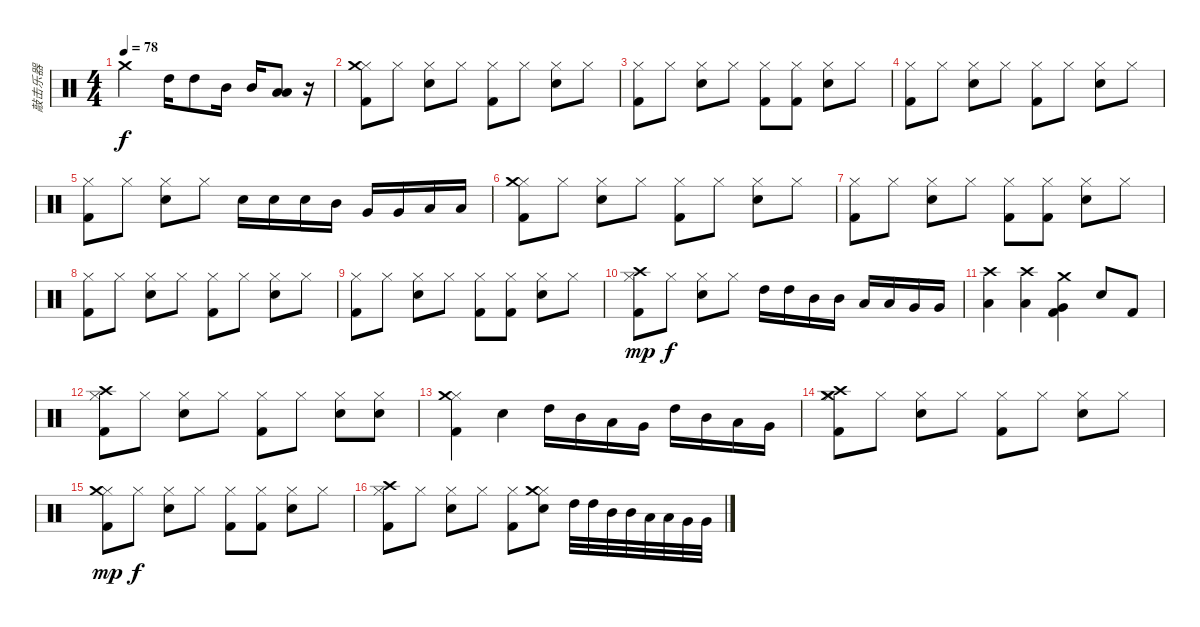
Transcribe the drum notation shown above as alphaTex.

\track ("敲击乐器" "敲击乐器") {instrument percussion}
\staff {score}
\articulation defaults
\ts (4 4)
\tempo 78
\clef neutral
\ks c "Crash medium (hit)".2{dy f} "High Tom (hit)".16 "High Tom (hit)".8 "Mid Tom (hit)".16 "Mid Tom (hit)".16
("Low Tom (hit)" "Low Tom (hit)").8 r.16 |
("Hi-Hat (closed)" "Kick (hit) 2" "Crash medium (hit)").8 "Hi-Hat (closed)".8 ("Hi-Hat (closed)" "Snare (hit) 2").8 "Hi-Hat (closed)".8 ("Hi-Hat (closed)" "Kick (hit) 2").8 "Hi-Hat (closed)".8 ("Hi-Hat (closed)" "Snare (hit) 2").8 "Hi-Hat (closed)".8 |
("Hi-Hat (closed)" "Kick (hit) 2").8 "Hi-Hat (closed)".8 ("Hi-Hat (closed)" "Snare (hit) 2").8 "Hi-Hat (closed)".8 ("Hi-Hat (closed)" "Kick (hit) 2").8 ("Hi-Hat (closed)" "Kick (hit) 2").8 ("Hi-Hat (closed)" "Snare (hit) 2").8 "Hi-Hat (closed)".8 |
("Hi-Hat (closed)" "Kick (hit) 2").8 "Hi-Hat (closed)".8 ("Hi-Hat (closed)" "Snare (hit) 2").8 "Hi-Hat (closed)".8 ("Hi-Hat (closed)" "Kick (hit) 2").8 "Hi-Hat (closed)".8 ("Hi-Hat (closed)" "Snare (hit) 2").8 "Hi-Hat (closed)".8 |
("Hi-Hat (closed)" "Kick (hit) 2").8 "Hi-Hat (closed)".8 ("Hi-Hat (closed)" "Snare (hit) 2").8 "Hi-Hat (closed)".8 "Snare (hit) 2".16 "Snare (hit) 2".16 "Snare (hit) 2".16 "Mid Tom (hit)".16 "Very Low Tom (hit)".16 "Very Low Tom (hit)".16 "Low Floor Tom (hit)".16 "Low Floor Tom (hit)".16 |
("Hi-Hat (closed)" "Kick (hit) 2" "Crash medium (hit)").8 "Hi-Hat (closed)".8 ("Hi-Hat (closed)" "Snare (hit) 2").8 "Hi-Hat (closed)".8 ("Hi-Hat (closed)" "Kick (hit) 2").8 "Hi-Hat (closed)".8 ("Hi-Hat (closed)" "Snare (hit) 2").8 "Hi-Hat (closed)".8 |
("Hi-Hat (closed)" "Kick (hit) 2").8 "Hi-Hat (closed)".8 ("Hi-Hat (closed)" "Snare (hit) 2").8 "Hi-Hat (closed)".8 ("Hi-Hat (closed)" "Kick (hit) 2").8 ("Hi-Hat (closed)" "Kick (hit) 2").8 ("Hi-Hat (closed)" "Snare (hit) 2").8 "Hi-Hat (closed)".8 |
("Hi-Hat (closed)" "Kick (hit) 2").8 "Hi-Hat (closed)".8 ("Hi-Hat (closed)" "Snare (hit) 2").8 "Hi-Hat (closed)".8 ("Hi-Hat (closed)" "Kick (hit) 2").8 "Hi-Hat (closed)".8 ("Hi-Hat (closed)" "Snare (hit) 2").8 "Hi-Hat (closed)".8 |
("Hi-Hat (closed)" "Kick (hit) 2").8 "Hi-Hat (closed)".8 ("Hi-Hat (closed)" "Snare (hit) 2").8 "Hi-Hat (closed)".8 ("Hi-Hat (closed)" "Kick (hit) 2").8 ("Hi-Hat (closed)" "Kick (hit) 2").8 ("Hi-Hat (closed)" "Snare (hit) 2").8 "Hi-Hat (closed)".8 |
("Hi-Hat (closed)" "Kick (hit) 2" "Crash high (hit)").8{dy mp} "Hi-Hat (closed)".8{dy f} ("Hi-Hat (closed)" "Snare (hit) 2").8 "Hi-Hat (closed)".8 "High Tom (hit)".16 "High Tom (hit)".16 "Mid Tom (hit)".16 "Mid Tom (hit)".16 "Low Tom (hit)".16 "Low Tom (hit)".16 "Very Low Tom (hit)".16 "Very Low Tom (hit)".16 |
("Low Tom (hit)" "Crash high (hit)").4 ("Low Tom (hit)" "Crash high (hit)").4 ("Very Low Tom (hit)" "Kick (hit) 2" "Crash medium (hit)").4 "Snare (hit) 2".8 "Kick (hit) 2".8 |
("Hi-Hat (closed)" "Kick (hit) 2" "Crash high (hit)").8 "Hi-Hat (closed)".8 ("Hi-Hat (closed)" "Snare (hit) 2").8 "Hi-Hat (closed)".8 ("Hi-Hat (closed)" "Kick (hit) 2").8 "Hi-Hat (closed)".8 ("Hi-Hat (closed)" "Snare (hit) 2").8 ("Hi-Hat (closed)" "Snare (hit) 2").8 |
("Hi-Hat (closed)" "Kick (hit) 2" "Crash medium (hit)").4 "Snare (hit) 2".4 "High Tom (hit)".16 "Mid Tom (hit)".16 "Low Tom (hit)".16 "Very Low Tom (hit)".16 "High Tom (hit)".16 "Mid Tom (hit)".16 "Low Tom (hit)".16 "Very Low Tom (hit)".16 |
("Hi-Hat (closed)" "Kick (hit) 2" "Crash medium (hit)" "Crash high (hit)").8 "Hi-Hat (closed)".8 ("Hi-Hat (closed)" "Snare (hit) 2").8 "Hi-Hat (closed)".8 ("Hi-Hat (closed)" "Kick (hit) 2").8 "Hi-Hat (closed)".8 ("Hi-Hat (closed)" "Snare (hit) 2").8 "Hi-Hat (closed)".8 |
("Hi-Hat (closed)" "Kick (hit) 2" "Crash medium (hit)").8{dy mp} "Hi-Hat (closed)".8{dy f} ("Hi-Hat (closed)" "Snare (hit) 2").8 "Hi-Hat (closed)".8 ("Hi-Hat (closed)" "Kick (hit) 2").8 ("Hi-Hat (closed)" "Kick (hit) 2").8 ("Hi-Hat (closed)" "Snare (hit) 2").8 "Hi-Hat (closed)".8 |
("Hi-Hat (closed)" "Kick (hit) 2" "Crash high (hit)").8 "Hi-Hat (closed)".8 ("Hi-Hat (closed)" "Snare (hit) 2").8 "Hi-Hat (closed)".8 ("Hi-Hat (closed)" "Kick (hit) 2").8 ("Hi-Hat (closed)" "Snare (hit) 2" "Crash medium (hit)").8 "High Tom (hit)".32 "High Tom (hit)".32 "Mid Tom (hit)".32 "Mid Tom (hit)".32 "Low Tom (hit)".32 "Low Tom (hit)".32 "Very Low Tom (hit)".32 "Very Low Tom (hit)".32
